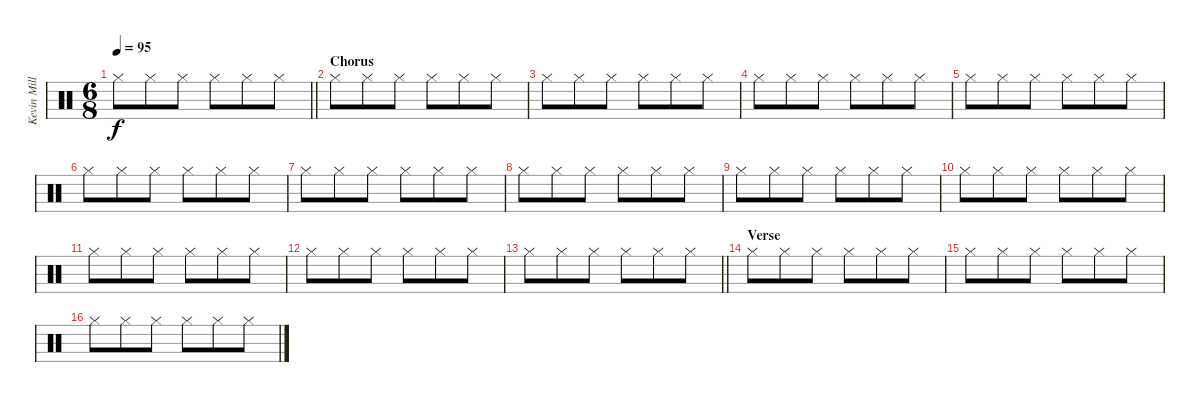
\track ("Kevin Miller (Drums)" "Kevin Mill") {instrument percussion}
\staff {score}
\articulation defaults
\ts (6 8)
\tempo 95
\clef neutral
\barLineRight lightlight
\ks c "Hi-Hat (closed)".8{dy f} "Hi-Hat (closed)".8 "Hi-Hat (closed)".8 "Hi-Hat (closed)".8 "Hi-Hat (closed)".8 "Hi-Hat (closed)".8
|
\section ("" "Chorus")
"Hi-Hat (closed)".8 "Hi-Hat (closed)".8 "Hi-Hat (closed)".8 "Hi-Hat (closed)".8 "Hi-Hat (closed)".8 "Hi-Hat (closed)".8 |
"Hi-Hat (closed)".8 "Hi-Hat (closed)".8 "Hi-Hat (closed)".8 "Hi-Hat (closed)".8 "Hi-Hat (closed)".8 "Hi-Hat (closed)".8 |
"Hi-Hat (closed)".8 "Hi-Hat (closed)".8 "Hi-Hat (closed)".8 "Hi-Hat (closed)".8 "Hi-Hat (closed)".8 "Hi-Hat (closed)".8 |
"Hi-Hat (closed)".8 "Hi-Hat (closed)".8 "Hi-Hat (closed)".8 "Hi-Hat (closed)".8 "Hi-Hat (closed)".8 "Hi-Hat (closed)".8 |
"Hi-Hat (closed)".8 "Hi-Hat (closed)".8 "Hi-Hat (closed)".8 "Hi-Hat (closed)".8 "Hi-Hat (closed)".8 "Hi-Hat (closed)".8 |
"Hi-Hat (closed)".8 "Hi-Hat (closed)".8 "Hi-Hat (closed)".8 "Hi-Hat (closed)".8 "Hi-Hat (closed)".8 "Hi-Hat (closed)".8 |
"Hi-Hat (closed)".8 "Hi-Hat (closed)".8 "Hi-Hat (closed)".8 "Hi-Hat (closed)".8 "Hi-Hat (closed)".8 "Hi-Hat (closed)".8 |
"Hi-Hat (closed)".8 "Hi-Hat (closed)".8 "Hi-Hat (closed)".8 "Hi-Hat (closed)".8 "Hi-Hat (closed)".8 "Hi-Hat (closed)".8 |
"Hi-Hat (closed)".8 "Hi-Hat (closed)".8 "Hi-Hat (closed)".8 "Hi-Hat (closed)".8 "Hi-Hat (closed)".8 "Hi-Hat (closed)".8 |
"Hi-Hat (closed)".8 "Hi-Hat (closed)".8 "Hi-Hat (closed)".8 "Hi-Hat (closed)".8 "Hi-Hat (closed)".8 "Hi-Hat (closed)".8 |
"Hi-Hat (closed)".8 "Hi-Hat (closed)".8 "Hi-Hat (closed)".8 "Hi-Hat (closed)".8 "Hi-Hat (closed)".8 "Hi-Hat (closed)".8 |
\barLineRight lightlight "Hi-Hat (closed)".8 "Hi-Hat (closed)".8 "Hi-Hat (closed)".8 "Hi-Hat (closed)".8 "Hi-Hat (closed)".8 "Hi-Hat (closed)".8
|
\section ("" "Verse")
"Hi-Hat (closed)".8 "Hi-Hat (closed)".8 "Hi-Hat (closed)".8 "Hi-Hat (closed)".8 "Hi-Hat (closed)".8 "Hi-Hat (closed)".8 |
"Hi-Hat (closed)".8 "Hi-Hat (closed)".8 "Hi-Hat (closed)".8 "Hi-Hat (closed)".8 "Hi-Hat (closed)".8 "Hi-Hat (closed)".8 |
"Hi-Hat (closed)".8 "Hi-Hat (closed)".8 "Hi-Hat (closed)".8 "Hi-Hat (closed)".8 "Hi-Hat (closed)".8 "Hi-Hat (closed)".8
